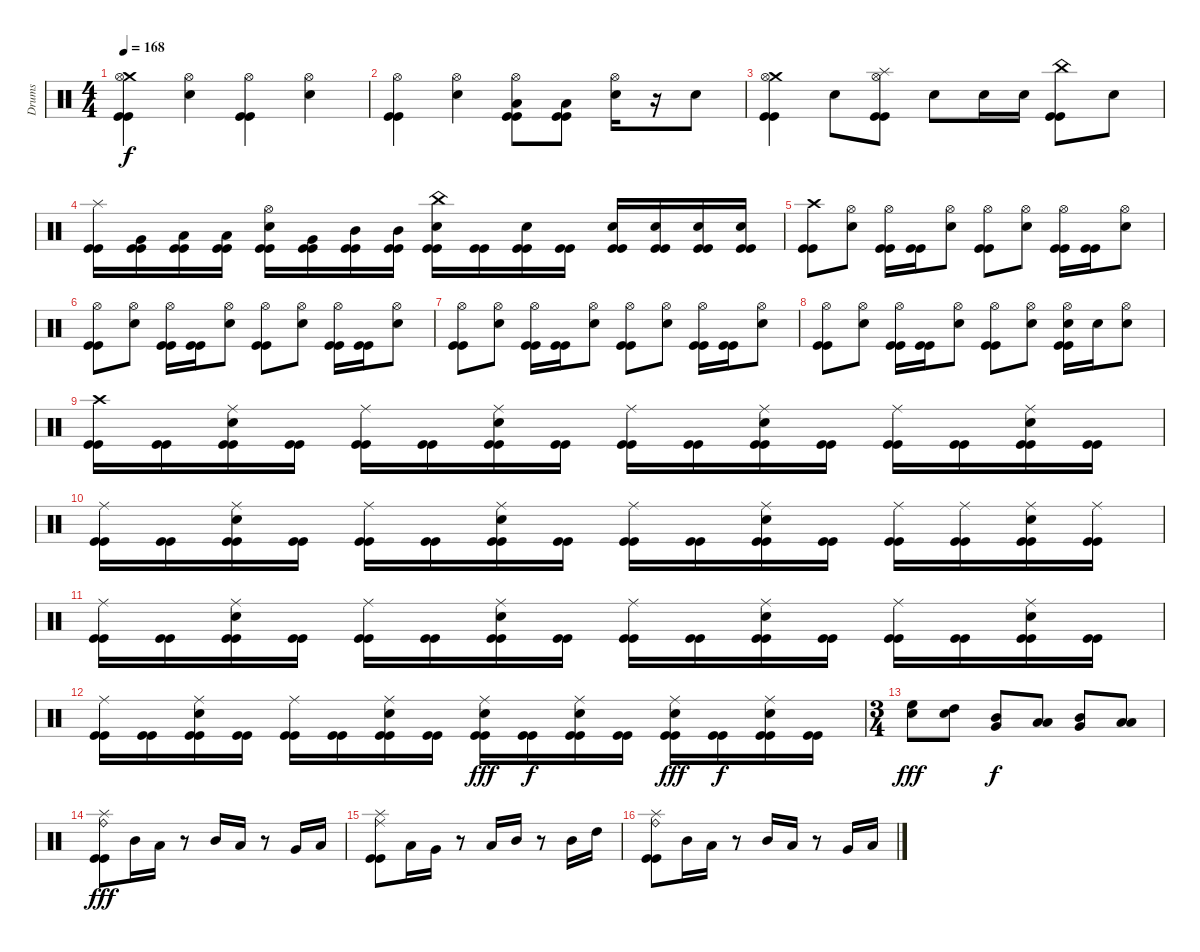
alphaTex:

\track ("Drums" "Drums") {instrument percussion}
\staff {score}
\articulation defaults
\ts (4 4)
\tempo 168
\clef neutral
\ks c
("Crash medium (hit)" "Hi-Hat (open)" "Kick (hit)" "Kick (hit)").4{dy f} ("Hi-Hat (open)" "Electric Snare (hit)").4 ("Hi-Hat (open)" "Kick (hit)" "Kick (hit)").4 ("Hi-Hat (open)" "Electric Snare (hit)").4 |
("Hi-Hat (open)" "Kick (hit)" "Kick (hit)").4 ("Hi-Hat (open)" "Electric Snare (hit)").4 ("Hi-Hat (open)" "Low Tom (hit)" "Kick (hit)" "Kick (hit)").8 ("Low Tom (hit)" "Kick (hit)" "Kick (hit)").8 ("Hi-Hat (open)" "Electric Snare (hit)").16 r.16 "Electric Snare (hit)".8 |
("Crash medium (hit)" "Hi-Hat (open)" "Kick (hit)" "Kick (hit)").4 "Electric Snare (hit)".8 ("Splash (hit)" "Hi-Hat (open)" "Kick (hit)" "Kick (hit)").8 "Electric Snare (hit)".8 "Electric Snare (hit)".16 "Electric Snare (hit)".16 ("China (hit)" "Kick (hit)" "Kick (hit)").8 "Electric Snare (hit)".8 |
("Splash (hit)" "Kick (hit)" "Kick (hit)").16 ("Very Low Tom (hit)" "Kick (hit)" "Kick (hit)").16 ("Low Tom (hit)" "Kick (hit)" "Kick (hit)").16 ("Low Tom (hit)" "Kick (hit)" "Kick (hit)").16 ("Hi-Hat (open)" "Electric Snare (hit)" "Kick (hit)" "Kick (hit)").16 ("Very Low Tom (hit)" "Kick (hit)" "Kick (hit)").16 ("Mid Tom (hit)" "Kick (hit)" "Kick (hit)").16 ("Mid Tom (hit)" "Kick (hit)" "Kick (hit)").16 ("China (hit)" "Electric Snare (hit)" "Kick (hit)" "Kick (hit)").16 ("Kick (hit)" "Kick (hit)").16 ("Electric Snare (hit)" "Kick (hit)" "Kick (hit)").16 ("Kick (hit)" "Kick (hit)").16 ("Electric Snare (hit)" "Kick (hit)" "Kick (hit)").16 ("Electric Snare (hit)" "Kick (hit)" "Kick (hit)").16 ("Electric Snare (hit)" "Kick (hit)" "Kick (hit)").16 ("Electric Snare (hit)" "Kick (hit)" "Kick (hit)").16 |
("Crash high (hit)" "Kick (hit)" "Kick (hit)").8 ("Hi-Hat (open)" "Electric Snare (hit)").8 ("Hi-Hat (open)" "Kick (hit)" "Kick (hit)").16 ("Kick (hit)" "Kick (hit)").16 ("Hi-Hat (open)" "Electric Snare (hit)").8 ("Hi-Hat (open)" "Kick (hit)" "Kick (hit)").8 ("Hi-Hat (open)" "Electric Snare (hit)").8 ("Hi-Hat (open)" "Kick (hit)" "Kick (hit)").16 ("Kick (hit)" "Kick (hit)").16 ("Hi-Hat (open)" "Electric Snare (hit)").8 |
("Hi-Hat (open)" "Kick (hit)" "Kick (hit)").8 ("Hi-Hat (open)" "Electric Snare (hit)").8 ("Hi-Hat (open)" "Kick (hit)" "Kick (hit)").16 ("Kick (hit)" "Kick (hit)").16 ("Hi-Hat (open)" "Electric Snare (hit)").8 ("Hi-Hat (open)" "Kick (hit)" "Kick (hit)").8 ("Hi-Hat (open)" "Electric Snare (hit)").8 ("Hi-Hat (open)" "Kick (hit)" "Kick (hit)").16 ("Kick (hit)" "Kick (hit)").16 ("Hi-Hat (open)" "Electric Snare (hit)").8 |
("Hi-Hat (open)" "Kick (hit)" "Kick (hit)").8 ("Hi-Hat (open)" "Electric Snare (hit)").8 ("Hi-Hat (open)" "Kick (hit)" "Kick (hit)").16 ("Kick (hit)" "Kick (hit)").16 ("Hi-Hat (open)" "Electric Snare (hit)").8 ("Hi-Hat (open)" "Kick (hit)" "Kick (hit)").8 ("Hi-Hat (open)" "Electric Snare (hit)").8 ("Hi-Hat (open)" "Kick (hit)" "Kick (hit)").16 ("Kick (hit)" "Kick (hit)").16 ("Hi-Hat (open)" "Electric Snare (hit)").8 |
("Hi-Hat (open)" "Kick (hit)" "Kick (hit)").8 ("Hi-Hat (open)" "Electric Snare (hit)").8 ("Hi-Hat (open)" "Kick (hit)" "Kick (hit)").16 ("Kick (hit)" "Kick (hit)").16 ("Hi-Hat (open)" "Electric Snare (hit)").8 ("Hi-Hat (open)" "Kick (hit)" "Kick (hit)").8 ("Hi-Hat (open)" "Electric Snare (hit)").8 ("Hi-Hat (open)" "Electric Snare (hit)" "Kick (hit)" "Kick (hit)").16 "Electric Snare (hit)".16 ("Hi-Hat (open)" "Electric Snare (hit)").8 |
("Crash high (hit)" "Kick (hit)" "Kick (hit)").16 ("Kick (hit)" "Kick (hit)").16 ("Ride (middle)" "Electric Snare (hit)" "Kick (hit)" "Kick (hit)").16 ("Kick (hit)" "Kick (hit)").16 ("Ride (middle)" "Kick (hit)" "Kick (hit)").16 ("Kick (hit)" "Kick (hit)").16 ("Ride (middle)" "Electric Snare (hit)" "Kick (hit)" "Kick (hit)").16 ("Kick (hit)" "Kick (hit)").16 ("Ride (middle)" "Kick (hit)" "Kick (hit)").16 ("Kick (hit)" "Kick (hit)").16 ("Ride (middle)" "Electric Snare (hit)" "Kick (hit)" "Kick (hit)").16 ("Kick (hit)" "Kick (hit)").16 ("Ride (middle)" "Kick (hit)" "Kick (hit)").16 ("Kick (hit)" "Kick (hit)").16 ("Ride (middle)" "Electric Snare (hit)" "Kick (hit)" "Kick (hit)").16 ("Kick (hit)" "Kick (hit)").16 |
("Ride (middle)" "Kick (hit)" "Kick (hit)").16 ("Kick (hit)" "Kick (hit)").16 ("Ride (middle)" "Electric Snare (hit)" "Kick (hit)" "Kick (hit)").16 ("Kick (hit)" "Kick (hit)").16 ("Ride (middle)" "Kick (hit)" "Kick (hit)").16 ("Kick (hit)" "Kick (hit)").16 ("Ride (middle)" "Electric Snare (hit)" "Kick (hit)" "Kick (hit)").16 ("Kick (hit)" "Kick (hit)").16 ("Ride (middle)" "Kick (hit)" "Kick (hit)").16 ("Kick (hit)" "Kick (hit)").16 ("Ride (middle)" "Electric Snare (hit)" "Kick (hit)" "Kick (hit)").16 ("Kick (hit)" "Kick (hit)").16 ("Ride (middle)" "Kick (hit)" "Kick (hit)").16 ("Ride (middle)" "Kick (hit)" "Kick (hit)").16 ("Ride (middle)" "Electric Snare (hit)" "Kick (hit)" "Kick (hit)").16 ("Ride (middle)" "Kick (hit)" "Kick (hit)").16 |
("Ride (middle)" "Kick (hit)" "Kick (hit)").16 ("Kick (hit)" "Kick (hit)").16 ("Ride (middle)" "Electric Snare (hit)" "Kick (hit)" "Kick (hit)").16 ("Kick (hit)" "Kick (hit)").16 ("Ride (middle)" "Kick (hit)" "Kick (hit)").16 ("Kick (hit)" "Kick (hit)").16 ("Ride (middle)" "Electric Snare (hit)" "Kick (hit)" "Kick (hit)").16 ("Kick (hit)" "Kick (hit)").16 ("Ride (middle)" "Kick (hit)" "Kick (hit)").16 ("Kick (hit)" "Kick (hit)").16 ("Ride (middle)" "Electric Snare (hit)" "Kick (hit)" "Kick (hit)").16 ("Kick (hit)" "Kick (hit)").16 ("Ride (middle)" "Kick (hit)" "Kick (hit)").16 ("Kick (hit)" "Kick (hit)").16 ("Ride (middle)" "Electric Snare (hit)" "Kick (hit)" "Kick (hit)").16 ("Kick (hit)" "Kick (hit)").16 |
("Ride (middle)" "Kick (hit)" "Kick (hit)").16 ("Kick (hit)" "Kick (hit)").16 ("Ride (middle)" "Electric Snare (hit)" "Kick (hit)" "Kick (hit)").16 ("Kick (hit)" "Kick (hit)").16 ("Ride (middle)" "Kick (hit)" "Kick (hit)").16 ("Kick (hit)" "Kick (hit)").16 ("Ride (middle)" "Electric Snare (hit)" "Kick (hit)" "Kick (hit)").16 ("Kick (hit)" "Kick (hit)").16 ("Ride (middle)" "Electric Snare (hit)" "Kick (hit)" "Kick (hit)").16{dy fff} ("Kick (hit)" "Kick (hit)").16{dy f} ("Ride (middle)" "Electric Snare (hit)" "Kick (hit)" "Kick (hit)").16 ("Kick (hit)" "Kick (hit)").16 ("Ride (middle)" "Electric Snare (hit)" "Kick (hit)" "Kick (hit)").16{dy fff} ("Kick (hit)" "Kick (hit)").16{dy f} ("Ride (middle)" "Electric Snare (hit)" "Kick (hit)" "Kick (hit)").16 ("Kick (hit)" "Kick (hit)").16 |
\ts (3 4)
("High Floor Tom (hit)" "Electric Snare (hit)").8{dy fff} ("High Tom (hit)" "Electric Snare (hit)").8 ("Very Low Tom (hit)" "Mid Tom (hit)").8{dy f} ("Low Floor Tom (hit)" "Low Tom (hit)").8 ("Mid Tom (hit)" "Very Low Tom (hit)").8 ("Low Tom (hit)" "Low Floor Tom (hit)").8 |
("Splash (hit)" "Ride (bell)" "Kick (hit)" "Kick (hit)").8{dy fff} "Mid Tom (hit)".16 "Low Tom (hit)".16 r.8 "Mid Tom (hit)".16 "Low Tom (hit)".16 r.8 "Very Low Tom (hit)".16 "Low Floor Tom (hit)".16 |
("Splash (hit)" "Ride (middle)" "Kick (hit)" "Kick (hit)").8 "Low Floor Tom (hit)".16 "Very Low Tom (hit)".16 r.8 "Low Tom (hit)".16 "Mid Tom (hit)".16 r.8 "Mid Tom (hit)".16 "High Tom (hit)".16 |
("Splash (hit)" "Ride (bell)" "Kick (hit)" "Kick (hit)").8 "Mid Tom (hit)".16 "Low Tom (hit)".16 r.8 "Mid Tom (hit)".16 "Low Tom (hit)".16 r.8 "Very Low Tom (hit)".16 "Low Floor Tom (hit)".16
